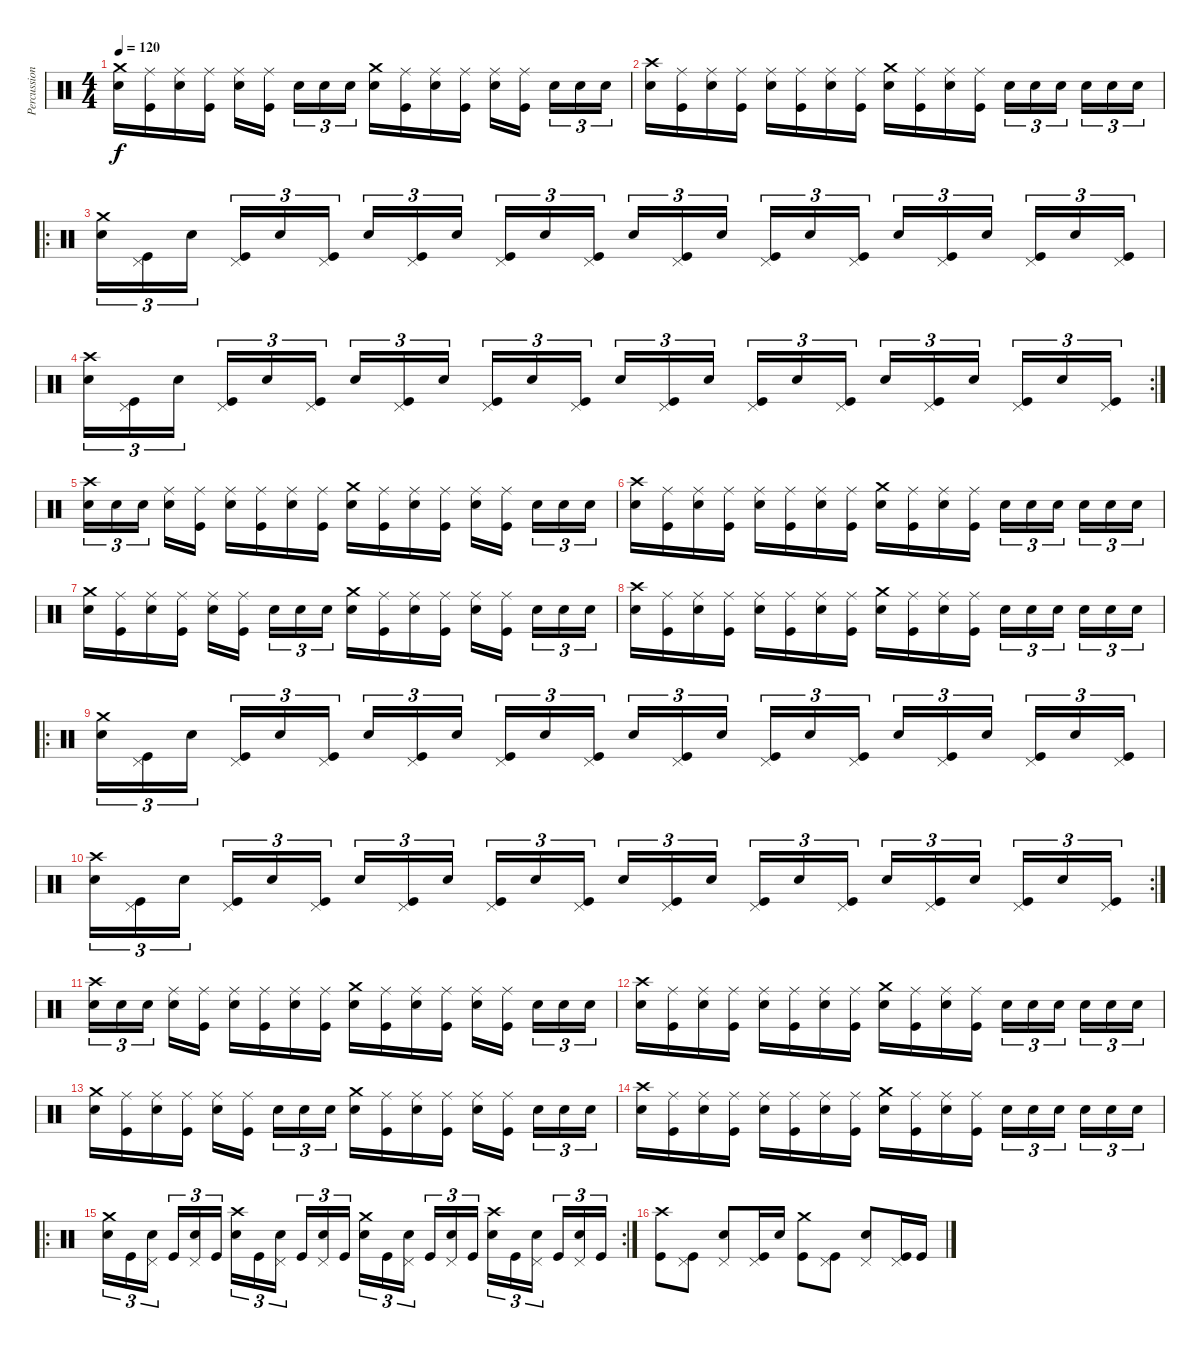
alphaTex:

\track ("Percussioni" "Percussion") {instrument percussion}
\staff {score}
\articulation defaults
\ts (4 4)
\tempo 120
\clef neutral
\ks c
("Crash medium (hit)" "Electric Snare (hit)").16{dy f} ("Ride (middle)" "Kick (hit)").16 ("Ride (middle)" "Electric Snare (hit)").16 ("Ride (middle)" "Kick (hit)").16 ("Ride (middle)" "Electric Snare (hit)").16 ("Ride (middle)" "Kick (hit)").16 "Electric Snare (hit)".16{tu (3 2)} "Electric Snare (hit)".16{tu (3 2)} "Electric Snare (hit)".16{tu (3 2)} ("Crash medium (hit)" "Electric Snare (hit)").16 ("Ride (middle)" "Kick (hit)").16 ("Ride (middle)" "Electric Snare (hit)").16 ("Ride (middle)" "Kick (hit)").16 ("Ride (middle)" "Electric Snare (hit)").16 ("Ride (middle)" "Kick (hit)").16 "Electric Snare (hit)".16{tu (3 2)} "Electric Snare (hit)".16{tu (3 2)} "Electric Snare (hit)".16{tu (3 2)} |
("Crash high (hit)" "Electric Snare (hit)").16 ("Ride (middle)" "Kick (hit)").16 ("Ride (middle)" "Electric Snare (hit)").16 ("Ride (middle)" "Kick (hit)").16 ("Ride (middle)" "Electric Snare (hit)").16 ("Ride (middle)" "Kick (hit)").16 ("Ride (middle)" "Electric Snare (hit)").16 ("Ride (middle)" "Kick (hit)").16 ("Crash medium (hit)" "Electric Snare (hit)").16 ("Ride (middle)" "Kick (hit)").16 ("Ride (middle)" "Electric Snare (hit)").16 ("Ride (middle)" "Kick (hit)").16 "Electric Snare (hit)".16{tu (3 2)} "Electric Snare (hit)".16{tu (3 2)} "Electric Snare (hit)".16{tu (3 2)} "Electric Snare (hit)".16{tu (3 2)} "Electric Snare (hit)".16{tu (3 2)} "Electric Snare (hit)".16{tu (3 2)} |
\ro
("Crash medium (hit)" "Electric Snare (hit)").16{tu (3 2)} ("Pedal Hi-Hat (hit)" "Kick (hit)").16{tu (3 2)} "Electric Snare (hit)".16{tu (3 2)} ("Pedal Hi-Hat (hit)" "Kick (hit)").16{tu (3 2)} "Electric Snare (hit)".16{tu (3 2)} ("Pedal Hi-Hat (hit)" "Kick (hit)").16{tu (3 2)} "Electric Snare (hit)".16{tu (3 2)} ("Pedal Hi-Hat (hit)" "Kick (hit)").16{tu (3 2)} "Electric Snare (hit)".16{tu (3 2)} ("Pedal Hi-Hat (hit)" "Kick (hit)").16{tu (3 2)} "Electric Snare (hit)".16{tu (3 2)} ("Pedal Hi-Hat (hit)" "Kick (hit)").16{tu (3 2)} "Electric Snare (hit)".16{tu (3 2)} ("Pedal Hi-Hat (hit)" "Kick (hit)").16{tu (3 2)} "Electric Snare (hit)".16{tu (3 2)} ("Pedal Hi-Hat (hit)" "Kick (hit)").16{tu (3 2)} "Electric Snare (hit)".16{tu (3 2)} ("Pedal Hi-Hat (hit)" "Kick (hit)").16{tu (3 2)} "Electric Snare (hit)".16{tu (3 2)} ("Pedal Hi-Hat (hit)" "Kick (hit)").16{tu (3 2)} "Electric Snare (hit)".16{tu (3 2)} ("Pedal Hi-Hat (hit)" "Kick (hit)").16{tu (3 2)} "Electric Snare (hit)".16{tu (3 2)} ("Pedal Hi-Hat (hit)" "Kick (hit)").16{tu (3 2)} |
\rc 2
("Crash high (hit)" "Electric Snare (hit)").16{tu (3 2)} ("Pedal Hi-Hat (hit)" "Kick (hit)").16{tu (3 2)} "Electric Snare (hit)".16{tu (3 2)} ("Pedal Hi-Hat (hit)" "Kick (hit)").16{tu (3 2)} "Electric Snare (hit)".16{tu (3 2)} ("Pedal Hi-Hat (hit)" "Kick (hit)").16{tu (3 2)} "Electric Snare (hit)".16{tu (3 2)} ("Pedal Hi-Hat (hit)" "Kick (hit)").16{tu (3 2)} "Electric Snare (hit)".16{tu (3 2)} ("Pedal Hi-Hat (hit)" "Kick (hit)").16{tu (3 2)} "Electric Snare (hit)".16{tu (3 2)} ("Pedal Hi-Hat (hit)" "Kick (hit)").16{tu (3 2)} "Electric Snare (hit)".16{tu (3 2)} ("Pedal Hi-Hat (hit)" "Kick (hit)").16{tu (3 2)} "Electric Snare (hit)".16{tu (3 2)} ("Pedal Hi-Hat (hit)" "Kick (hit)").16{tu (3 2)} "Electric Snare (hit)".16{tu (3 2)} ("Pedal Hi-Hat (hit)" "Kick (hit)").16{tu (3 2)} "Electric Snare (hit)".16{tu (3 2)} ("Pedal Hi-Hat (hit)" "Kick (hit)").16{tu (3 2)} "Electric Snare (hit)".16{tu (3 2)} ("Pedal Hi-Hat (hit)" "Kick (hit)").16{tu (3 2)} "Electric Snare (hit)".16{tu (3 2)} ("Pedal Hi-Hat (hit)" "Kick (hit)").16{tu (3 2)} |
("Crash high (hit)" "Electric Snare (hit)").16{tu (3 2)} "Electric Snare (hit)".16{tu (3 2)} "Electric Snare (hit)".16{tu (3 2)} ("Ride (middle)" "Electric Snare (hit)").16 ("Ride (middle)" "Kick (hit)").16 ("Ride (middle)" "Electric Snare (hit)").16 ("Ride (middle)" "Kick (hit)").16 ("Ride (middle)" "Electric Snare (hit)").16 ("Ride (middle)" "Kick (hit)").16 ("Crash medium (hit)" "Electric Snare (hit)").16 ("Ride (middle)" "Kick (hit)").16 ("Ride (middle)" "Electric Snare (hit)").16 ("Ride (middle)" "Kick (hit)").16 ("Ride (middle)" "Electric Snare (hit)").16 ("Ride (middle)" "Kick (hit)").16 "Electric Snare (hit)".16{tu (3 2)} "Electric Snare (hit)".16{tu (3 2)} "Electric Snare (hit)".16{tu (3 2)} |
("Crash high (hit)" "Electric Snare (hit)").16 ("Ride (middle)" "Kick (hit)").16 ("Ride (middle)" "Electric Snare (hit)").16 ("Ride (middle)" "Kick (hit)").16 ("Ride (middle)" "Electric Snare (hit)").16 ("Ride (middle)" "Kick (hit)").16 ("Ride (middle)" "Electric Snare (hit)").16 ("Ride (middle)" "Kick (hit)").16 ("Crash medium (hit)" "Electric Snare (hit)").16 ("Ride (middle)" "Kick (hit)").16 ("Ride (middle)" "Electric Snare (hit)").16 ("Ride (middle)" "Kick (hit)").16 "Electric Snare (hit)".16{tu (3 2)} "Electric Snare (hit)".16{tu (3 2)} "Electric Snare (hit)".16{tu (3 2)} "Electric Snare (hit)".16{tu (3 2)} "Electric Snare (hit)".16{tu (3 2)} "Electric Snare (hit)".16{tu (3 2)} |
("Crash medium (hit)" "Electric Snare (hit)").16 ("Ride (middle)" "Kick (hit)").16 ("Ride (middle)" "Electric Snare (hit)").16 ("Ride (middle)" "Kick (hit)").16 ("Ride (middle)" "Electric Snare (hit)").16 ("Ride (middle)" "Kick (hit)").16 "Electric Snare (hit)".16{tu (3 2)} "Electric Snare (hit)".16{tu (3 2)} "Electric Snare (hit)".16{tu (3 2)} ("Crash medium (hit)" "Electric Snare (hit)").16 ("Ride (middle)" "Kick (hit)").16 ("Ride (middle)" "Electric Snare (hit)").16 ("Ride (middle)" "Kick (hit)").16 ("Ride (middle)" "Electric Snare (hit)").16 ("Ride (middle)" "Kick (hit)").16 "Electric Snare (hit)".16{tu (3 2)} "Electric Snare (hit)".16{tu (3 2)} "Electric Snare (hit)".16{tu (3 2)} |
("Crash high (hit)" "Electric Snare (hit)").16 ("Ride (middle)" "Kick (hit)").16 ("Ride (middle)" "Electric Snare (hit)").16 ("Ride (middle)" "Kick (hit)").16 ("Ride (middle)" "Electric Snare (hit)").16 ("Ride (middle)" "Kick (hit)").16 ("Ride (middle)" "Electric Snare (hit)").16 ("Ride (middle)" "Kick (hit)").16 ("Crash medium (hit)" "Electric Snare (hit)").16 ("Ride (middle)" "Kick (hit)").16 ("Ride (middle)" "Electric Snare (hit)").16 ("Ride (middle)" "Kick (hit)").16 "Electric Snare (hit)".16{tu (3 2)} "Electric Snare (hit)".16{tu (3 2)} "Electric Snare (hit)".16{tu (3 2)} "Electric Snare (hit)".16{tu (3 2)} "Electric Snare (hit)".16{tu (3 2)} "Electric Snare (hit)".16{tu (3 2)} |
\ro
("Crash medium (hit)" "Electric Snare (hit)").16{tu (3 2)} ("Pedal Hi-Hat (hit)" "Kick (hit)").16{tu (3 2)} "Electric Snare (hit)".16{tu (3 2)} ("Pedal Hi-Hat (hit)" "Kick (hit)").16{tu (3 2)} "Electric Snare (hit)".16{tu (3 2)} ("Pedal Hi-Hat (hit)" "Kick (hit)").16{tu (3 2)} "Electric Snare (hit)".16{tu (3 2)} ("Pedal Hi-Hat (hit)" "Kick (hit)").16{tu (3 2)} "Electric Snare (hit)".16{tu (3 2)} ("Pedal Hi-Hat (hit)" "Kick (hit)").16{tu (3 2)} "Electric Snare (hit)".16{tu (3 2)} ("Pedal Hi-Hat (hit)" "Kick (hit)").16{tu (3 2)} "Electric Snare (hit)".16{tu (3 2)} ("Pedal Hi-Hat (hit)" "Kick (hit)").16{tu (3 2)} "Electric Snare (hit)".16{tu (3 2)} ("Pedal Hi-Hat (hit)" "Kick (hit)").16{tu (3 2)} "Electric Snare (hit)".16{tu (3 2)} ("Pedal Hi-Hat (hit)" "Kick (hit)").16{tu (3 2)} "Electric Snare (hit)".16{tu (3 2)} ("Pedal Hi-Hat (hit)" "Kick (hit)").16{tu (3 2)} "Electric Snare (hit)".16{tu (3 2)} ("Pedal Hi-Hat (hit)" "Kick (hit)").16{tu (3 2)} "Electric Snare (hit)".16{tu (3 2)} ("Pedal Hi-Hat (hit)" "Kick (hit)").16{tu (3 2)} |
\rc 2
("Crash high (hit)" "Electric Snare (hit)").16{tu (3 2)} ("Pedal Hi-Hat (hit)" "Kick (hit)").16{tu (3 2)} "Electric Snare (hit)".16{tu (3 2)} ("Pedal Hi-Hat (hit)" "Kick (hit)").16{tu (3 2)} "Electric Snare (hit)".16{tu (3 2)} ("Pedal Hi-Hat (hit)" "Kick (hit)").16{tu (3 2)} "Electric Snare (hit)".16{tu (3 2)} ("Pedal Hi-Hat (hit)" "Kick (hit)").16{tu (3 2)} "Electric Snare (hit)".16{tu (3 2)} ("Pedal Hi-Hat (hit)" "Kick (hit)").16{tu (3 2)} "Electric Snare (hit)".16{tu (3 2)} ("Pedal Hi-Hat (hit)" "Kick (hit)").16{tu (3 2)} "Electric Snare (hit)".16{tu (3 2)} ("Pedal Hi-Hat (hit)" "Kick (hit)").16{tu (3 2)} "Electric Snare (hit)".16{tu (3 2)} ("Pedal Hi-Hat (hit)" "Kick (hit)").16{tu (3 2)} "Electric Snare (hit)".16{tu (3 2)} ("Pedal Hi-Hat (hit)" "Kick (hit)").16{tu (3 2)} "Electric Snare (hit)".16{tu (3 2)} ("Pedal Hi-Hat (hit)" "Kick (hit)").16{tu (3 2)} "Electric Snare (hit)".16{tu (3 2)} ("Pedal Hi-Hat (hit)" "Kick (hit)").16{tu (3 2)} "Electric Snare (hit)".16{tu (3 2)} ("Pedal Hi-Hat (hit)" "Kick (hit)").16{tu (3 2)} |
("Crash high (hit)" "Electric Snare (hit)").16{tu (3 2)} "Electric Snare (hit)".16{tu (3 2)} "Electric Snare (hit)".16{tu (3 2)} ("Ride (middle)" "Electric Snare (hit)").16 ("Ride (middle)" "Kick (hit)").16 ("Ride (middle)" "Electric Snare (hit)").16 ("Ride (middle)" "Kick (hit)").16 ("Ride (middle)" "Electric Snare (hit)").16 ("Ride (middle)" "Kick (hit)").16 ("Crash medium (hit)" "Electric Snare (hit)").16 ("Ride (middle)" "Kick (hit)").16 ("Ride (middle)" "Electric Snare (hit)").16 ("Ride (middle)" "Kick (hit)").16 ("Ride (middle)" "Electric Snare (hit)").16 ("Ride (middle)" "Kick (hit)").16 "Electric Snare (hit)".16{tu (3 2)} "Electric Snare (hit)".16{tu (3 2)} "Electric Snare (hit)".16{tu (3 2)} |
("Crash high (hit)" "Electric Snare (hit)").16 ("Ride (middle)" "Kick (hit)").16 ("Ride (middle)" "Electric Snare (hit)").16 ("Ride (middle)" "Kick (hit)").16 ("Ride (middle)" "Electric Snare (hit)").16 ("Ride (middle)" "Kick (hit)").16 ("Ride (middle)" "Electric Snare (hit)").16 ("Ride (middle)" "Kick (hit)").16 ("Crash medium (hit)" "Electric Snare (hit)").16 ("Ride (middle)" "Kick (hit)").16 ("Ride (middle)" "Electric Snare (hit)").16 ("Ride (middle)" "Kick (hit)").16 "Electric Snare (hit)".16{tu (3 2)} "Electric Snare (hit)".16{tu (3 2)} "Electric Snare (hit)".16{tu (3 2)} "Electric Snare (hit)".16{tu (3 2)} "Electric Snare (hit)".16{tu (3 2)} "Electric Snare (hit)".16{tu (3 2)} |
("Crash medium (hit)" "Electric Snare (hit)").16 ("Ride (middle)" "Kick (hit)").16 ("Ride (middle)" "Electric Snare (hit)").16 ("Ride (middle)" "Kick (hit)").16 ("Ride (middle)" "Electric Snare (hit)").16 ("Ride (middle)" "Kick (hit)").16 "Electric Snare (hit)".16{tu (3 2)} "Electric Snare (hit)".16{tu (3 2)} "Electric Snare (hit)".16{tu (3 2)} ("Crash medium (hit)" "Electric Snare (hit)").16 ("Ride (middle)" "Kick (hit)").16 ("Ride (middle)" "Electric Snare (hit)").16 ("Ride (middle)" "Kick (hit)").16 ("Ride (middle)" "Electric Snare (hit)").16 ("Ride (middle)" "Kick (hit)").16 "Electric Snare (hit)".16{tu (3 2)} "Electric Snare (hit)".16{tu (3 2)} "Electric Snare (hit)".16{tu (3 2)} |
("Crash high (hit)" "Electric Snare (hit)").16 ("Ride (middle)" "Kick (hit)").16 ("Ride (middle)" "Electric Snare (hit)").16 ("Ride (middle)" "Kick (hit)").16 ("Ride (middle)" "Electric Snare (hit)").16 ("Ride (middle)" "Kick (hit)").16 ("Ride (middle)" "Electric Snare (hit)").16 ("Ride (middle)" "Kick (hit)").16 ("Crash medium (hit)" "Electric Snare (hit)").16 ("Ride (middle)" "Kick (hit)").16 ("Ride (middle)" "Electric Snare (hit)").16 ("Ride (middle)" "Kick (hit)").16 "Electric Snare (hit)".16{tu (3 2)} "Electric Snare (hit)".16{tu (3 2)} "Electric Snare (hit)".16{tu (3 2)} "Electric Snare (hit)".16{tu (3 2)} "Electric Snare (hit)".16{tu (3 2)} "Electric Snare (hit)".16{tu (3 2)} |
\ro
\rc 2
("Crash medium (hit)" "Electric Snare (hit)").16{tu (3 2)} "Kick (hit)".16{tu (3 2)} ("Pedal Hi-Hat (hit)" "Electric Snare (hit)").16{tu (3 2)} "Kick (hit)".16{tu (3 2)} ("Pedal Hi-Hat (hit)" "Electric Snare (hit)").16{tu (3 2)} "Kick (hit)".16{tu (3 2)} ("Crash high (hit)" "Electric Snare (hit)").16{tu (3 2)} "Kick (hit)".16{tu (3 2)} ("Pedal Hi-Hat (hit)" "Electric Snare (hit)").16{tu (3 2)} "Kick (hit)".16{tu (3 2)} ("Pedal Hi-Hat (hit)" "Electric Snare (hit)").16{tu (3 2)} "Kick (hit)".16{tu (3 2)} ("Crash medium (hit)" "Electric Snare (hit)").16{tu (3 2)} "Kick (hit)".16{tu (3 2)} ("Pedal Hi-Hat (hit)" "Electric Snare (hit)").16{tu (3 2)} "Kick (hit)".16{tu (3 2)} ("Pedal Hi-Hat (hit)" "Electric Snare (hit)").16{tu (3 2)} "Kick (hit)".16{tu (3 2)} ("Crash high (hit)" "Electric Snare (hit)").16{tu (3 2)} "Kick (hit)".16{tu (3 2)} ("Pedal Hi-Hat (hit)" "Electric Snare (hit)").16{tu (3 2)} "Kick (hit)".16{tu (3 2)} ("Pedal Hi-Hat (hit)" "Electric Snare (hit)").16{tu (3 2)} "Kick (hit)".16{tu (3 2)} |
("Crash high (hit)" "Kick (hit)").8 ("Pedal Hi-Hat (hit)" "Kick (hit)").8 ("Pedal Hi-Hat (hit)" "Electric Snare (hit)").8 ("Pedal Hi-Hat (hit)" "Kick (hit)").16 "Electric Snare (hit)".16 ("Crash medium (hit)" "Kick (hit)").8 ("Pedal Hi-Hat (hit)" "Kick (hit)").8 ("Pedal Hi-Hat (hit)" "Electric Snare (hit)").8 ("Pedal Hi-Hat (hit)" "Kick (hit)").16 "Kick (hit)".16
